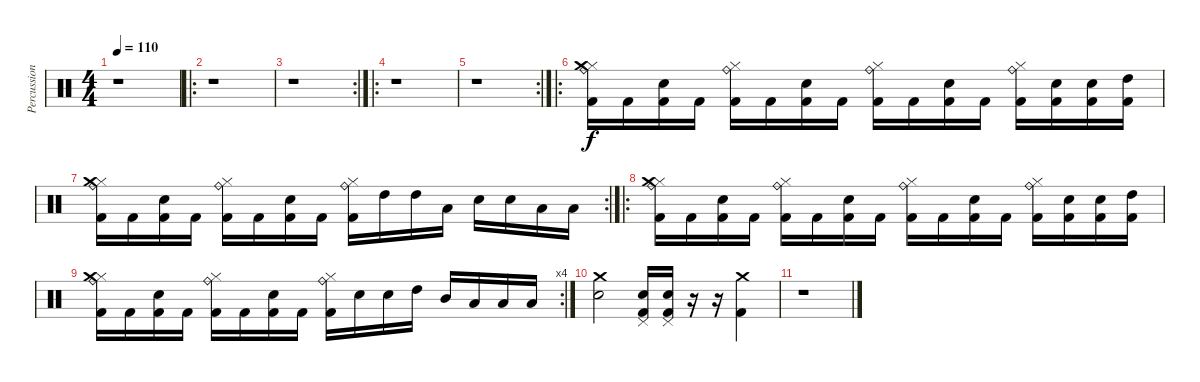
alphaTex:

\track ("Percussion" "Percussion") {instrument percussion}
\staff {score}
\articulation defaults
\ts (4 4)
\tempo 110
\clef neutral
\ks c
r.1{dy f} |
\ro
r.1 |
\rc 2
r.1 |
\ro
r.1 |
\rc 2
r.1 |
\ro
("Ride (bell)" "Hi-Hat (closed)" "Crash medium (hit)" "Kick (hit) 2").16 "Kick (hit) 2".16 ("Electric Snare (hit)" "Kick (hit) 2").16 "Kick (hit) 2".16 ("Ride (bell)" "Hi-Hat (closed)" "Kick (hit) 2").16 "Kick (hit) 2".16 ("Electric Snare (hit)" "Kick (hit) 2").16 "Kick (hit) 2".16 ("Ride (bell)" "Hi-Hat (closed)" "Kick (hit) 2").16 "Kick (hit) 2".16 ("Electric Snare (hit)" "Kick (hit) 2").16 "Kick (hit) 2".16 ("Ride (bell)" "Hi-Hat (closed)" "Kick (hit) 2").16 ("Snare (hit) 2" "Kick (hit) 2").16 ("Snare (hit) 2" "Kick (hit) 2").16 ("High Tom (hit)" "Kick (hit) 2").16 |
\rc 2
("Ride (bell)" "Hi-Hat (closed)" "Crash medium (hit)" "Kick (hit) 2").16 "Kick (hit) 2".16 ("Electric Snare (hit)" "Kick (hit) 2").16 "Kick (hit) 2".16 ("Ride (bell)" "Hi-Hat (closed)" "Kick (hit) 2").16 "Kick (hit) 2".16 ("Electric Snare (hit)" "Kick (hit) 2").16 "Kick (hit) 2".16 ("Ride (bell)" "Hi-Hat (closed)" "Kick (hit) 2").16 "High Tom (hit)".16 "High Tom (hit)".16 "Low Tom (hit)".16 "Snare (hit) 2".16 "Snare (hit) 2".16 "Low Tom (hit)".16 "Low Floor Tom (hit)".16 |
\ro
("Ride (bell)" "Hi-Hat (closed)" "Crash medium (hit)" "Kick (hit) 2").16 "Kick (hit) 2".16 ("Electric Snare (hit)" "Kick (hit) 2").16 "Kick (hit) 2".16 ("Ride (bell)" "Hi-Hat (closed)" "Kick (hit) 2").16 "Kick (hit) 2".16 ("Electric Snare (hit)" "Kick (hit) 2").16 "Kick (hit) 2".16 ("Ride (bell)" "Hi-Hat (closed)" "Kick (hit) 2").16 "Kick (hit) 2".16 ("Electric Snare (hit)" "Kick (hit) 2").16 "Kick (hit) 2".16 ("Ride (bell)" "Hi-Hat (closed)" "Kick (hit) 2").16 ("Snare (hit) 2" "Kick (hit) 2").16 ("Snare (hit) 2" "Kick (hit) 2").16 ("High Tom (hit)" "Kick (hit) 2").16 |
\rc 4
("Ride (bell)" "Hi-Hat (closed)" "Crash medium (hit)" "Kick (hit) 2").16 "Kick (hit) 2".16 ("Electric Snare (hit)" "Kick (hit) 2").16 "Kick (hit) 2".16 ("Ride (bell)" "Hi-Hat (closed)" "Kick (hit) 2").16 "Kick (hit) 2".16 ("Electric Snare (hit)" "Kick (hit) 2").16 "Kick (hit) 2".16 ("Ride (bell)" "Hi-Hat (closed)" "Kick (hit) 2").16 "Snare (hit) 2".16 "Snare (hit) 2".16 "High Tom (hit)".16 "Mid Tom (hit)".16 "Low Tom (hit)".16 "Low Tom (hit)".16 "Low Floor Tom (hit)".16 |
("Electric Snare (hit)" "Crash medium (hit)").2 ("Pedal Hi-Hat (hit)" "Snare (hit) 2" "Kick (hit) 2").16 ("Pedal Hi-Hat (hit)" "Snare (hit) 2" "Kick (hit) 2").16 r.16 r.16 ("Crash medium (hit)" "Kick (hit) 2").4 |
r.1
